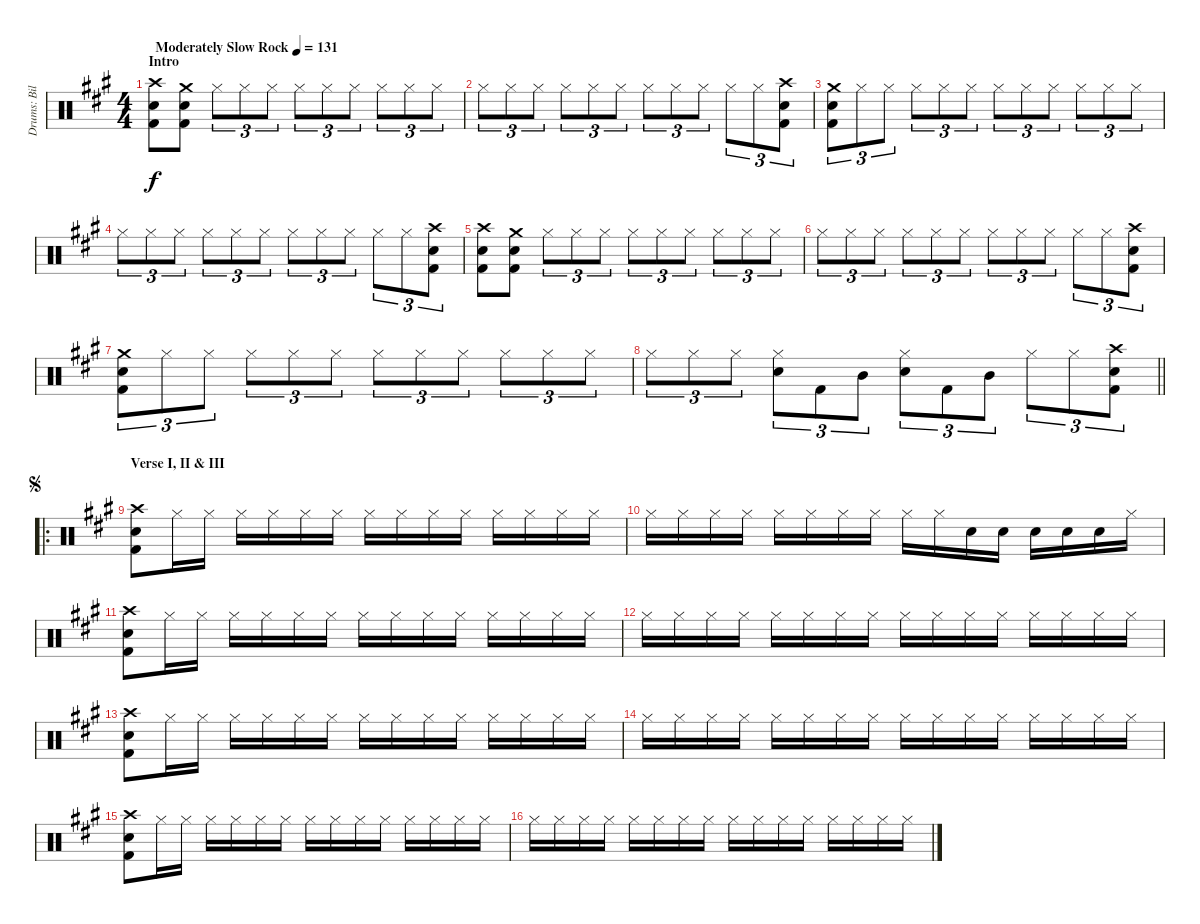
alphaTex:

\track ("Drums: Bill" "Drums: Bil") {instrument percussion}
\staff {score}
\articulation defaults
\ts (4 4)
\section ("" "Intro")
\tempo (131 "Moderately Slow Rock")
\clef neutral
\ks a
("Crash high (hit)" "Snare (hit) 2" "Kick (hit) 2").8{dy f} ("Crash medium (hit)" "Snare (hit) 2" "Kick (hit) 2").8 "Hi-Hat (closed)".8{tu (3 2)} "Hi-Hat (closed)".8{tu (3 2)} "Hi-Hat (closed)".8{tu (3 2)} "Hi-Hat (closed)".8{tu (3 2)} "Hi-Hat (closed)".8{tu (3 2)} "Hi-Hat (closed)".8{tu (3 2)} "Hi-Hat (closed)".8{tu (3 2)} "Hi-Hat (closed)".8{tu (3 2)} "Hi-Hat (closed)".8{tu (3 2)} |
"Hi-Hat (closed)".8{tu (3 2)} "Hi-Hat (closed)".8{tu (3 2)} "Hi-Hat (closed)".8{tu (3 2)} "Hi-Hat (closed)".8{tu (3 2)} "Hi-Hat (closed)".8{tu (3 2)} "Hi-Hat (closed)".8{tu (3 2)} "Hi-Hat (closed)".8{tu (3 2)} "Hi-Hat (closed)".8{tu (3 2)} "Hi-Hat (closed)".8{tu (3 2)} "Hi-Hat (closed)".8{tu (3 2)} "Hi-Hat (closed)".8{tu (3 2)} ("Crash high (hit)" "Snare (hit) 2" "Kick (hit) 2").8{tu (3 2)} |
("Crash medium (hit)" "Snare (hit) 2" "Kick (hit) 2").8{tu (3 2)} "Hi-Hat (closed)".8{tu (3 2)} "Hi-Hat (closed)".8{tu (3 2)} "Hi-Hat (closed)".8{tu (3 2)} "Hi-Hat (closed)".8{tu (3 2)} "Hi-Hat (closed)".8{tu (3 2)} "Hi-Hat (closed)".8{tu (3 2)} "Hi-Hat (closed)".8{tu (3 2)} "Hi-Hat (closed)".8{tu (3 2)} "Hi-Hat (closed)".8{tu (3 2)} "Hi-Hat (closed)".8{tu (3 2)} "Hi-Hat (closed)".8{tu (3 2)} |
"Hi-Hat (closed)".8{tu (3 2)} "Hi-Hat (closed)".8{tu (3 2)} "Hi-Hat (closed)".8{tu (3 2)} "Hi-Hat (closed)".8{tu (3 2)} "Hi-Hat (closed)".8{tu (3 2)} "Hi-Hat (closed)".8{tu (3 2)} "Hi-Hat (closed)".8{tu (3 2)} "Hi-Hat (closed)".8{tu (3 2)} "Hi-Hat (closed)".8{tu (3 2)} "Hi-Hat (closed)".8{tu (3 2)} "Hi-Hat (closed)".8{tu (3 2)} ("Crash high (hit)" "Snare (hit) 2" "Kick (hit) 2").8{tu (3 2)} |
("Crash high (hit)" "Snare (hit) 2" "Kick (hit) 2").8 ("Crash medium (hit)" "Snare (hit) 2" "Kick (hit) 2").8 "Hi-Hat (closed)".8{tu (3 2)} "Hi-Hat (closed)".8{tu (3 2)} "Hi-Hat (closed)".8{tu (3 2)} "Hi-Hat (closed)".8{tu (3 2)} "Hi-Hat (closed)".8{tu (3 2)} "Hi-Hat (closed)".8{tu (3 2)} "Hi-Hat (closed)".8{tu (3 2)} "Hi-Hat (closed)".8{tu (3 2)} "Hi-Hat (closed)".8{tu (3 2)} |
"Hi-Hat (closed)".8{tu (3 2)} "Hi-Hat (closed)".8{tu (3 2)} "Hi-Hat (closed)".8{tu (3 2)} "Hi-Hat (closed)".8{tu (3 2)} "Hi-Hat (closed)".8{tu (3 2)} "Hi-Hat (closed)".8{tu (3 2)} "Hi-Hat (closed)".8{tu (3 2)} "Hi-Hat (closed)".8{tu (3 2)} "Hi-Hat (closed)".8{tu (3 2)} "Hi-Hat (closed)".8{tu (3 2)} "Hi-Hat (closed)".8{tu (3 2)} ("Crash high (hit)" "Snare (hit) 2" "Kick (hit) 2").8{tu (3 2)} |
("Crash medium (hit)" "Snare (hit) 2" "Kick (hit) 2").8{tu (3 2)} "Hi-Hat (closed)".8{tu (3 2)} "Hi-Hat (closed)".8{tu (3 2)} "Hi-Hat (closed)".8{tu (3 2)} "Hi-Hat (closed)".8{tu (3 2)} "Hi-Hat (closed)".8{tu (3 2)} "Hi-Hat (closed)".8{tu (3 2)} "Hi-Hat (closed)".8{tu (3 2)} "Hi-Hat (closed)".8{tu (3 2)} "Hi-Hat (closed)".8{tu (3 2)} "Hi-Hat (closed)".8{tu (3 2)} "Hi-Hat (closed)".8{tu (3 2)} |
\barLineRight lightlight "Hi-Hat (closed)".8{tu (3 2)} "Hi-Hat (closed)".8{tu (3 2)} "Hi-Hat (closed)".8{tu (3 2)}
("Hi-Hat (closed)" "Electric Snare (hit)").8{tu (3 2)} "Kick (hit) 2".8{tu (3 2)} "Mid Tom (hit)".8{tu (3 2)} ("Hi-Hat (closed)" "Electric Snare (hit)").8{tu (3 2)} "Kick (hit) 2".8{tu (3 2)} "Mid Tom (hit)".8{tu (3 2)} "Hi-Hat (closed)".8{tu (3 2)} "Hi-Hat (closed)".8{tu (3 2)} ("Crash high (hit)" "Snare (hit) 2" "Kick (hit) 2").8{tu (3 2)} |
\ro
\section ("" "Verse I, II & III")
\jump segno
("Crash high (hit)" "Snare (hit) 2" "Kick (hit) 2").8 "Hi-Hat (closed)".16 "Hi-Hat (closed)".16 "Hi-Hat (closed)".16 "Hi-Hat (closed)".16 "Hi-Hat (closed)".16 "Hi-Hat (closed)".16 "Hi-Hat (closed)".16 "Hi-Hat (closed)".16 "Hi-Hat (closed)".16 "Hi-Hat (closed)".16 "Hi-Hat (closed)".16 "Hi-Hat (closed)".16 "Hi-Hat (closed)".16 "Hi-Hat (closed)".16 |
"Hi-Hat (closed)".16 "Hi-Hat (closed)".16 "Hi-Hat (closed)".16 "Hi-Hat (closed)".16 "Hi-Hat (closed)".16 "Hi-Hat (closed)".16 "Hi-Hat (closed)".16 "Hi-Hat (closed)".16 "Hi-Hat (closed)".16 "Hi-Hat (closed)".16 "Electric Snare (hit)".16 "Electric Snare (hit)".16 "Electric Snare (hit)".16 "Electric Snare (hit)".16 "Electric Snare (hit)".16 "Hi-Hat (closed)".16 |
("Crash high (hit)" "Snare (hit) 2" "Kick (hit) 2").8 "Hi-Hat (closed)".16 "Hi-Hat (closed)".16 "Hi-Hat (closed)".16 "Hi-Hat (closed)".16 "Hi-Hat (closed)".16 "Hi-Hat (closed)".16 "Hi-Hat (closed)".16 "Hi-Hat (closed)".16 "Hi-Hat (closed)".16 "Hi-Hat (closed)".16 "Hi-Hat (closed)".16 "Hi-Hat (closed)".16 "Hi-Hat (closed)".16 "Hi-Hat (closed)".16 |
"Hi-Hat (closed)".16 "Hi-Hat (closed)".16 "Hi-Hat (closed)".16 "Hi-Hat (closed)".16 "Hi-Hat (closed)".16 "Hi-Hat (closed)".16 "Hi-Hat (closed)".16 "Hi-Hat (closed)".16 "Hi-Hat (closed)".16 "Hi-Hat (closed)".16 "Hi-Hat (closed)".16 "Hi-Hat (closed)".16 "Hi-Hat (closed)".16 "Hi-Hat (closed)".16 "Hi-Hat (closed)".16 "Hi-Hat (closed)".16 |
("Crash high (hit)" "Snare (hit) 2" "Kick (hit) 2").8 "Hi-Hat (closed)".16 "Hi-Hat (closed)".16 "Hi-Hat (closed)".16 "Hi-Hat (closed)".16 "Hi-Hat (closed)".16 "Hi-Hat (closed)".16 "Hi-Hat (closed)".16 "Hi-Hat (closed)".16 "Hi-Hat (closed)".16 "Hi-Hat (closed)".16 "Hi-Hat (closed)".16 "Hi-Hat (closed)".16 "Hi-Hat (closed)".16 "Hi-Hat (closed)".16 |
"Hi-Hat (closed)".16 "Hi-Hat (closed)".16 "Hi-Hat (closed)".16 "Hi-Hat (closed)".16 "Hi-Hat (closed)".16 "Hi-Hat (closed)".16 "Hi-Hat (closed)".16 "Hi-Hat (closed)".16 "Hi-Hat (closed)".16 "Hi-Hat (closed)".16 "Hi-Hat (closed)".16 "Hi-Hat (closed)".16 "Hi-Hat (closed)".16 "Hi-Hat (closed)".16 "Hi-Hat (closed)".16 "Hi-Hat (closed)".16 |
("Crash high (hit)" "Snare (hit) 2" "Kick (hit) 2").8 "Hi-Hat (closed)".16 "Hi-Hat (closed)".16 "Hi-Hat (closed)".16 "Hi-Hat (closed)".16 "Hi-Hat (closed)".16 "Hi-Hat (closed)".16 "Hi-Hat (closed)".16 "Hi-Hat (closed)".16 "Hi-Hat (closed)".16 "Hi-Hat (closed)".16 "Hi-Hat (closed)".16 "Hi-Hat (closed)".16 "Hi-Hat (closed)".16 "Hi-Hat (closed)".16 |
"Hi-Hat (closed)".16 "Hi-Hat (closed)".16 "Hi-Hat (closed)".16 "Hi-Hat (closed)".16 "Hi-Hat (closed)".16 "Hi-Hat (closed)".16 "Hi-Hat (closed)".16 "Hi-Hat (closed)".16 "Hi-Hat (closed)".16 "Hi-Hat (closed)".16 "Hi-Hat (closed)".16 "Hi-Hat (closed)".16 "Hi-Hat (closed)".16 "Hi-Hat (closed)".16 "Hi-Hat (closed)".16 "Hi-Hat (closed)".16
